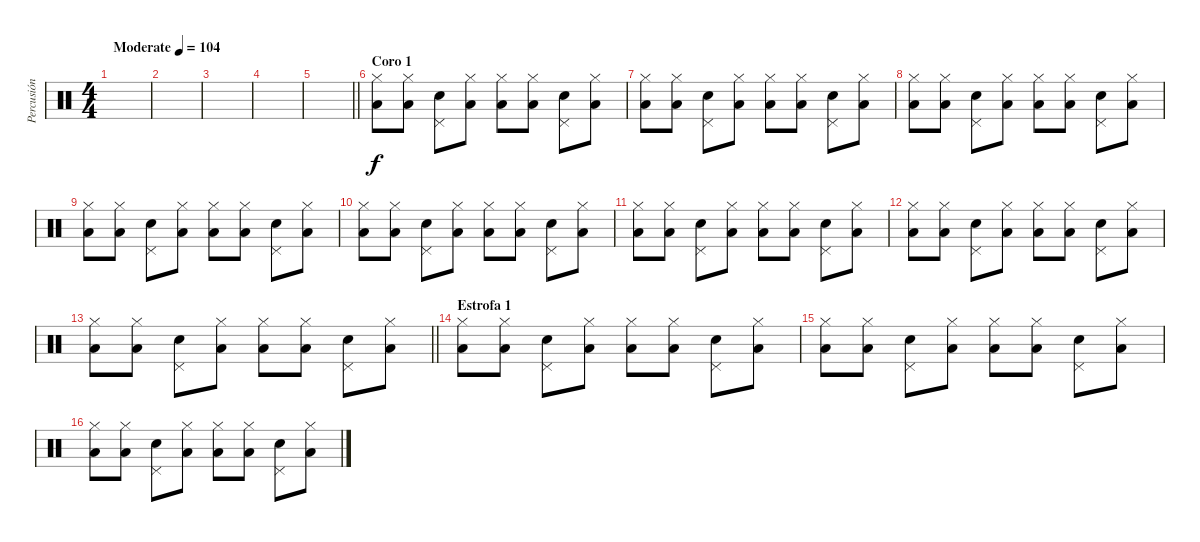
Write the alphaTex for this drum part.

\track ("Percusión" "Percusión") {instrument percussion}
\staff {score}
\articulation defaults
\ts (4 4)
\tempo (104 "Moderate")
\clef neutral
\ks c
|
|
|
|
\barLineRight lightlight
|
\section ("" "Coro 1")
("Low Floor Tom (hit)" "Hi-Hat (closed)").8 ("Low Floor Tom (hit)" "Hi-Hat (closed)").8 ("Pedal Hi-Hat (hit)" "Snare (hit) 2").8 ("Low Floor Tom (hit)" "Hi-Hat (closed)").8 ("Low Floor Tom (hit)" "Hi-Hat (closed)").8 ("Low Floor Tom (hit)" "Hi-Hat (closed)").8 ("Pedal Hi-Hat (hit)" "Snare (hit) 2").8 ("Low Floor Tom (hit)" "Hi-Hat (closed)").8 |
("Low Floor Tom (hit)" "Hi-Hat (closed)").8 ("Low Floor Tom (hit)" "Hi-Hat (closed)").8 ("Pedal Hi-Hat (hit)" "Snare (hit) 2").8 ("Low Floor Tom (hit)" "Hi-Hat (closed)").8 ("Low Floor Tom (hit)" "Hi-Hat (closed)").8 ("Low Floor Tom (hit)" "Hi-Hat (closed)").8 ("Pedal Hi-Hat (hit)" "Snare (hit) 2").8 ("Low Floor Tom (hit)" "Hi-Hat (closed)").8 |
("Low Floor Tom (hit)" "Hi-Hat (closed)").8 ("Low Floor Tom (hit)" "Hi-Hat (closed)").8 ("Pedal Hi-Hat (hit)" "Snare (hit) 2").8 ("Low Floor Tom (hit)" "Hi-Hat (closed)").8 ("Low Floor Tom (hit)" "Hi-Hat (closed)").8 ("Low Floor Tom (hit)" "Hi-Hat (closed)").8 ("Pedal Hi-Hat (hit)" "Snare (hit) 2").8 ("Low Floor Tom (hit)" "Hi-Hat (closed)").8 |
("Low Floor Tom (hit)" "Hi-Hat (closed)").8 ("Low Floor Tom (hit)" "Hi-Hat (closed)").8 ("Pedal Hi-Hat (hit)" "Snare (hit) 2").8 ("Low Floor Tom (hit)" "Hi-Hat (closed)").8 ("Low Floor Tom (hit)" "Hi-Hat (closed)").8 ("Low Floor Tom (hit)" "Hi-Hat (closed)").8 ("Pedal Hi-Hat (hit)" "Snare (hit) 2").8 ("Low Floor Tom (hit)" "Hi-Hat (closed)").8 |
("Low Floor Tom (hit)" "Hi-Hat (closed)").8 ("Low Floor Tom (hit)" "Hi-Hat (closed)").8 ("Pedal Hi-Hat (hit)" "Snare (hit) 2").8 ("Low Floor Tom (hit)" "Hi-Hat (closed)").8 ("Low Floor Tom (hit)" "Hi-Hat (closed)").8 ("Low Floor Tom (hit)" "Hi-Hat (closed)").8 ("Pedal Hi-Hat (hit)" "Snare (hit) 2").8 ("Low Floor Tom (hit)" "Hi-Hat (closed)").8 |
("Low Floor Tom (hit)" "Hi-Hat (closed)").8 ("Low Floor Tom (hit)" "Hi-Hat (closed)").8 ("Pedal Hi-Hat (hit)" "Snare (hit) 2").8 ("Low Floor Tom (hit)" "Hi-Hat (closed)").8 ("Low Floor Tom (hit)" "Hi-Hat (closed)").8 ("Low Floor Tom (hit)" "Hi-Hat (closed)").8 ("Pedal Hi-Hat (hit)" "Snare (hit) 2").8 ("Low Floor Tom (hit)" "Hi-Hat (closed)").8 |
("Low Floor Tom (hit)" "Hi-Hat (closed)").8 ("Low Floor Tom (hit)" "Hi-Hat (closed)").8 ("Pedal Hi-Hat (hit)" "Snare (hit) 2").8 ("Low Floor Tom (hit)" "Hi-Hat (closed)").8 ("Low Floor Tom (hit)" "Hi-Hat (closed)").8 ("Low Floor Tom (hit)" "Hi-Hat (closed)").8 ("Pedal Hi-Hat (hit)" "Snare (hit) 2").8 ("Low Floor Tom (hit)" "Hi-Hat (closed)").8 |
\barLineRight lightlight
("Low Floor Tom (hit)" "Hi-Hat (closed)").8 ("Low Floor Tom (hit)" "Hi-Hat (closed)").8 ("Pedal Hi-Hat (hit)" "Snare (hit) 2").8 ("Low Floor Tom (hit)" "Hi-Hat (closed)").8 ("Low Floor Tom (hit)" "Hi-Hat (closed)").8 ("Low Floor Tom (hit)" "Hi-Hat (closed)").8 ("Pedal Hi-Hat (hit)" "Snare (hit) 2").8 ("Low Floor Tom (hit)" "Hi-Hat (closed)").8 |
\section ("" "Estrofa 1")
("Low Floor Tom (hit)" "Hi-Hat (closed)").8 ("Low Floor Tom (hit)" "Hi-Hat (closed)").8 ("Pedal Hi-Hat (hit)" "Snare (hit) 2").8 ("Low Floor Tom (hit)" "Hi-Hat (closed)").8 ("Low Floor Tom (hit)" "Hi-Hat (closed)").8 ("Low Floor Tom (hit)" "Hi-Hat (closed)").8 ("Pedal Hi-Hat (hit)" "Snare (hit) 2").8 ("Low Floor Tom (hit)" "Hi-Hat (closed)").8 |
("Low Floor Tom (hit)" "Hi-Hat (closed)").8 ("Low Floor Tom (hit)" "Hi-Hat (closed)").8 ("Pedal Hi-Hat (hit)" "Snare (hit) 2").8 ("Low Floor Tom (hit)" "Hi-Hat (closed)").8 ("Low Floor Tom (hit)" "Hi-Hat (closed)").8 ("Low Floor Tom (hit)" "Hi-Hat (closed)").8 ("Pedal Hi-Hat (hit)" "Snare (hit) 2").8 ("Low Floor Tom (hit)" "Hi-Hat (closed)").8 |
("Low Floor Tom (hit)" "Hi-Hat (closed)").8 ("Low Floor Tom (hit)" "Hi-Hat (closed)").8 ("Pedal Hi-Hat (hit)" "Snare (hit) 2").8 ("Low Floor Tom (hit)" "Hi-Hat (closed)").8 ("Low Floor Tom (hit)" "Hi-Hat (closed)").8 ("Low Floor Tom (hit)" "Hi-Hat (closed)").8 ("Pedal Hi-Hat (hit)" "Snare (hit) 2").8 ("Low Floor Tom (hit)" "Hi-Hat (closed)").8
